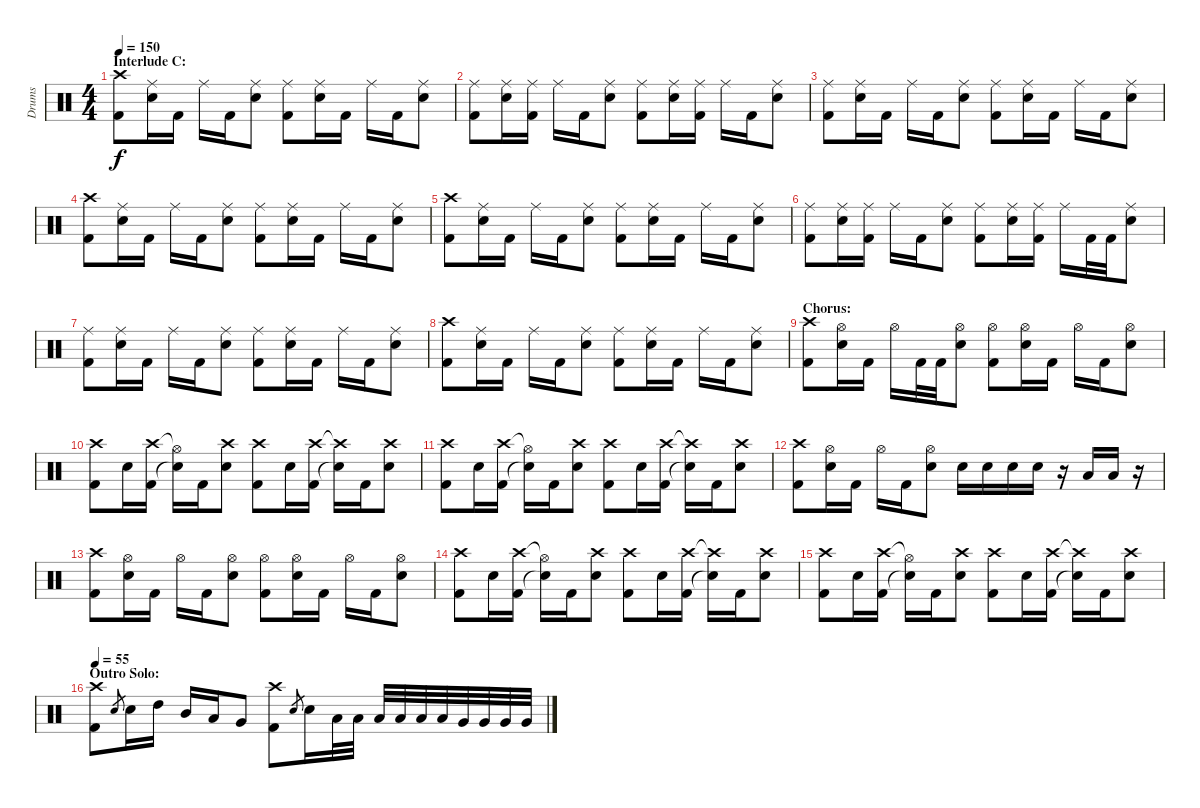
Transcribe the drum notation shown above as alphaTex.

\track ("Drums" "Drums") {instrument percussion}
\staff {score}
\articulation defaults
\ts (4 4)
\section ("" "Interlude C:")
\tempo 150
\clef neutral
\ks c
("Crash high (hit)" "Kick (hit) 2").8{dy f} ("Ride (middle)" "Snare (hit) 2").16 "Kick (hit) 2".16 "Ride (middle)".16 "Kick (hit) 2".16 ("Ride (middle)" "Snare (hit) 2").8 ("Ride (middle)" "Kick (hit) 2").8 ("Ride (middle)" "Snare (hit) 2").16 "Kick (hit) 2".16 "Ride (middle)".16 "Kick (hit) 2".16 ("Ride (middle)" "Snare (hit) 2").8 |
("Ride (middle)" "Kick (hit) 2").8 ("Ride (middle)" "Snare (hit) 2").16 ("Ride (middle)" "Kick (hit) 2").16 "Ride (middle)".16 "Kick (hit) 2".16 ("Ride (middle)" "Snare (hit) 2").8 ("Ride (middle)" "Kick (hit) 2").8 ("Ride (middle)" "Snare (hit) 2").16 ("Ride (middle)" "Kick (hit) 2").16 "Ride (middle)".16 "Kick (hit) 2".16 ("Ride (middle)" "Snare (hit) 2").8 |
("Ride (middle)" "Kick (hit) 2").8 ("Ride (middle)" "Snare (hit) 2").16 "Kick (hit) 2".16 "Ride (middle)".16 "Kick (hit) 2".16 ("Ride (middle)" "Snare (hit) 2").8 ("Ride (middle)" "Kick (hit) 2").8 ("Ride (middle)" "Snare (hit) 2").16 "Kick (hit) 2".16 "Ride (middle)".16 "Kick (hit) 2".16 ("Ride (middle)" "Snare (hit) 2").8 |
("Crash high (hit)" "Kick (hit) 2").8 ("Ride (middle)" "Snare (hit) 2").16 "Kick (hit) 2".16 "Ride (middle)".16 "Kick (hit) 2".16 ("Ride (middle)" "Snare (hit) 2").8 ("Ride (middle)" "Kick (hit) 2").8 ("Ride (middle)" "Snare (hit) 2").16 "Kick (hit) 2".16 "Ride (middle)".16 "Kick (hit) 2".16 ("Ride (middle)" "Snare (hit) 2").8 |
("Crash high (hit)" "Kick (hit) 2").8 ("Ride (middle)" "Snare (hit) 2").16 "Kick (hit) 2".16 "Ride (middle)".16 "Kick (hit) 2".16 ("Ride (middle)" "Snare (hit) 2").8 ("Ride (middle)" "Kick (hit) 2").8 ("Ride (middle)" "Snare (hit) 2").16 "Kick (hit) 2".16 "Ride (middle)".16 "Kick (hit) 2".16 ("Ride (middle)" "Snare (hit) 2").8 |
("Ride (middle)" "Kick (hit) 2").8 ("Ride (middle)" "Snare (hit) 2").16 ("Ride (middle)" "Kick (hit) 2").16 "Ride (middle)".16 "Kick (hit) 2".16 ("Ride (middle)" "Snare (hit) 2").8 ("Ride (middle)" "Kick (hit) 2").8 ("Ride (middle)" "Snare (hit) 2").16 ("Ride (middle)" "Kick (hit) 2").16 "Ride (middle)".16 "Kick (hit) 2".32 "Kick (hit) 2".32 ("Ride (middle)" "Snare (hit) 2").8 |
("Ride (middle)" "Kick (hit) 2").8 ("Ride (middle)" "Snare (hit) 2").16 "Kick (hit) 2".16 "Ride (middle)".16 "Kick (hit) 2".16 ("Ride (middle)" "Snare (hit) 2").8 ("Ride (middle)" "Kick (hit) 2").8 ("Ride (middle)" "Snare (hit) 2").16 "Kick (hit) 2".16 "Ride (middle)".16 "Kick (hit) 2".16 ("Ride (middle)" "Snare (hit) 2").8 |
("Crash high (hit)" "Kick (hit) 2").8 ("Ride (middle)" "Snare (hit) 2").16 "Kick (hit) 2".16 "Ride (middle)".16 "Kick (hit) 2".16 ("Ride (middle)" "Snare (hit) 2").8 ("Ride (middle)" "Kick (hit) 2").8 ("Ride (middle)" "Snare (hit) 2").16 "Kick (hit) 2".16 "Ride (middle)".16 "Kick (hit) 2".16 ("Ride (middle)" "Snare (hit) 2").8 |
\section ("" "Chorus:")
("Crash high (hit)" "Kick (hit) 2").8 ("Hi-Hat (open)" "Snare (hit) 2").16 "Kick (hit) 2".16 "Hi-Hat (open)".16 "Kick (hit) 2".32 "Kick (hit) 2".32 ("Hi-Hat (open)" "Snare (hit) 2").8 ("Hi-Hat (open)" "Kick (hit) 2").8 ("Hi-Hat (open)" "Snare (hit) 2").16 "Kick (hit) 2".16 "Hi-Hat (open)".16 "Kick (hit) 2".16 ("Hi-Hat (open)" "Snare (hit) 2").8 |
("Crash high (hit)" "Kick (hit) 2").8 "Snare (hit) 2".16 ("Crash high (hit)" "Kick (hit) 2").16 ("Hi-Hat (open)"{t} "Snare (hit)"{t}).16 "Kick (hit) 2".16 ("Crash high (hit)" "Snare (hit) 2").8 ("Crash high (hit)" "Kick (hit) 2").8 "Snare (hit) 2".16 ("Crash high (hit)" "Kick (hit) 2").16 ("Crash high (hit)"{t} "Snare (hit)"{t}).16 "Kick (hit) 2".16 ("Crash high (hit)" "Snare (hit) 2").8 |
("Crash high (hit)" "Kick (hit) 2").8 "Snare (hit) 2".16 ("Crash high (hit)" "Kick (hit) 2").16 ("Hi-Hat (open)"{t} "Snare (hit)"{t}).16 "Kick (hit) 2".16 ("Crash high (hit)" "Snare (hit) 2").8 ("Crash high (hit)" "Kick (hit) 2").8 "Snare (hit) 2".16 ("Crash high (hit)" "Kick (hit) 2").16 ("Crash high (hit)"{t} "Snare (hit)"{t}).16 "Kick (hit) 2".16 ("Crash high (hit)" "Snare (hit) 2").8 |
("Crash high (hit)" "Kick (hit) 2").8 ("Hi-Hat (open)" "Snare (hit) 2").16 "Kick (hit) 2".16 "Hi-Hat (open)".16 "Kick (hit) 2".16 ("Hi-Hat (open)" "Snare (hit) 2").8 "Snare (hit) 2".16 "Snare (hit) 2".16 "Snare (hit) 2".16 "Snare (hit) 2".16 r.16 "Low Tom (hit)".16 "Low Tom (hit)".16 r.16 |
("Crash high (hit)" "Kick (hit) 2").8 ("Hi-Hat (open)" "Snare (hit) 2").16 "Kick (hit) 2".16 "Hi-Hat (open)".16 "Kick (hit) 2".16 ("Hi-Hat (open)" "Snare (hit) 2").8 ("Hi-Hat (open)" "Kick (hit) 2").8 ("Hi-Hat (open)" "Snare (hit) 2").16 "Kick (hit) 2".16 "Hi-Hat (open)".16 "Kick (hit) 2".16 ("Hi-Hat (open)" "Snare (hit) 2").8 |
("Crash high (hit)" "Kick (hit) 2").8 "Snare (hit) 2".16 ("Crash high (hit)" "Kick (hit) 2").16 ("Hi-Hat (open)"{t} "Snare (hit)"{t}).16 "Kick (hit) 2".16 ("Crash high (hit)" "Snare (hit) 2").8 ("Crash high (hit)" "Kick (hit) 2").8 "Snare (hit) 2".16 ("Crash high (hit)" "Kick (hit) 2").16 ("Crash high (hit)"{t} "Snare (hit)"{t}).16 "Kick (hit) 2".16 ("Crash high (hit)" "Snare (hit) 2").8 |
("Crash high (hit)" "Kick (hit) 2").8 "Snare (hit) 2".16 ("Crash high (hit)" "Kick (hit) 2").16 ("Hi-Hat (open)"{t} "Snare (hit)"{t}).16 "Kick (hit) 2".16 ("Crash high (hit)" "Snare (hit) 2").8 ("Crash high (hit)" "Kick (hit) 2").8 "Snare (hit) 2".16 ("Crash high (hit)" "Kick (hit) 2").16 ("Crash high (hit)"{t} "Snare (hit)"{t}).16 "Kick (hit) 2".16 ("Crash high (hit)" "Snare (hit) 2").8 |
\section ("" "Outro Solo:")
\tempo 55
("Crash high (hit)" "Kick (hit) 2").8 "Snare (hit) 2".8{gr} "Snare (hit) 2".16 "High Tom (hit)".16 "Mid Tom (hit)".16 "Low Tom (hit)".16 "Very Low Tom (hit)".8 ("Crash high (hit)" "Kick (hit) 2").8 "Snare (hit) 2".8{gr} "Snare (hit) 2".16 "Low Tom (hit)".32 "Low Tom (hit)".32 "Low Tom (hit)".32 "Low Tom (hit)".32 "Low Tom (hit)".32 "Low Tom (hit)".32 "Very Low Tom (hit)".32 "Very Low Tom (hit)".32 "Very Low Tom (hit)".32 "Very Low Tom (hit)".32
